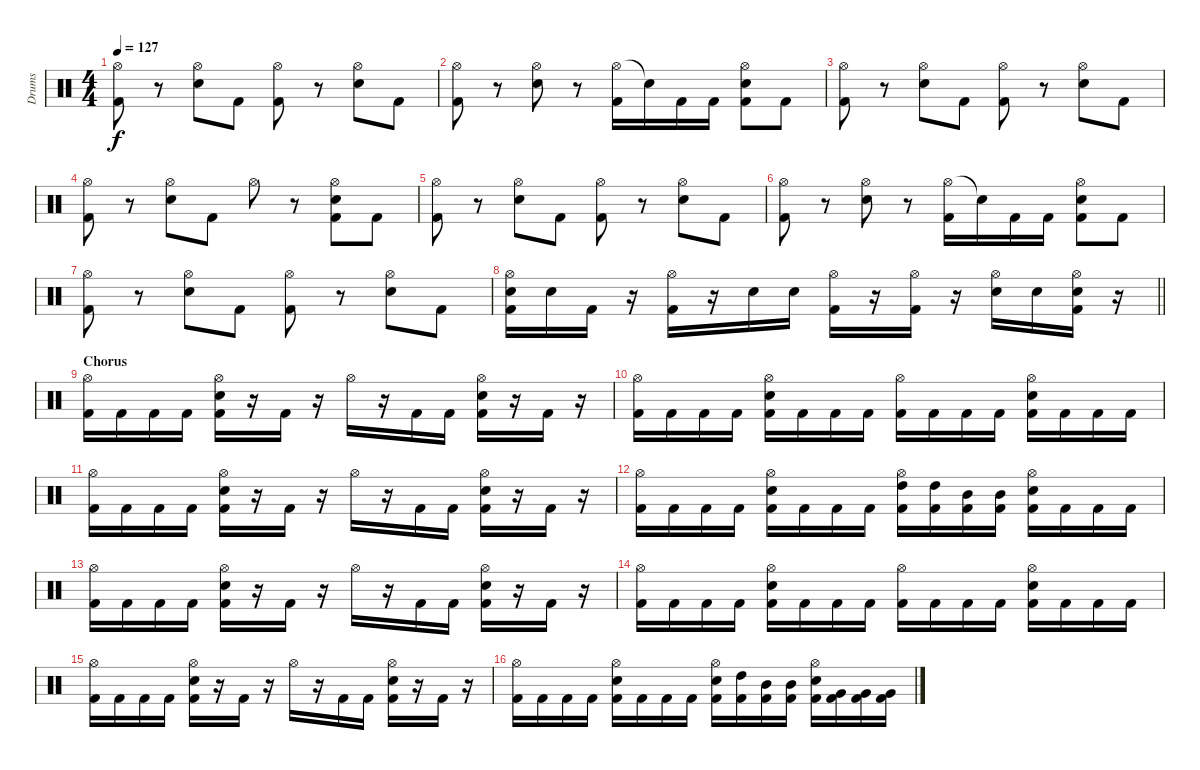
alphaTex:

\track ("Drums" "Drums") {instrument percussion}
\staff {score}
\articulation defaults
\ts (4 4)
\tempo 127
\clef neutral
\ks c
("Hi-Hat (open)" "Kick (hit) 2").8{dy f} r.8 ("Hi-Hat (open)" "Electric Snare (hit)").8 "Kick (hit) 2".8 ("Hi-Hat (open)" "Kick (hit) 2").8 r.8 ("Hi-Hat (open)" "Electric Snare (hit)").8 "Kick (hit) 2".8 |
("Hi-Hat (open)" "Kick (hit) 2").8 r.8 ("Hi-Hat (open)" "Electric Snare (hit)").8 r.8 ("Hi-Hat (open)" "Kick (hit) 2").16 "Snare (hit)"{t}.16 "Kick (hit) 2".16 "Kick (hit) 2".16 ("Hi-Hat (open)" "Electric Snare (hit)" "Kick (hit) 2").8 "Kick (hit) 2".8 |
("Hi-Hat (open)" "Kick (hit) 2").8 r.8 ("Hi-Hat (open)" "Electric Snare (hit)").8 "Kick (hit) 2".8 ("Hi-Hat (open)" "Kick (hit) 2").8 r.8 ("Hi-Hat (open)" "Electric Snare (hit)").8 "Kick (hit) 2".8 |
("Hi-Hat (open)" "Kick (hit) 2").8 r.8 ("Hi-Hat (open)" "Electric Snare (hit)").8 "Kick (hit) 2".8 "Hi-Hat (open)".8 r.8 ("Hi-Hat (open)" "Electric Snare (hit)" "Kick (hit) 2").8 "Kick (hit) 2".8 |
("Hi-Hat (open)" "Kick (hit) 2").8 r.8 ("Hi-Hat (open)" "Electric Snare (hit)").8 "Kick (hit) 2".8 ("Hi-Hat (open)" "Kick (hit) 2").8 r.8 ("Hi-Hat (open)" "Electric Snare (hit)").8 "Kick (hit) 2".8 |
("Hi-Hat (open)" "Kick (hit) 2").8 r.8 ("Hi-Hat (open)" "Electric Snare (hit)").8 r.8 ("Hi-Hat (open)" "Kick (hit) 2").16 "Snare (hit)"{t}.16 "Kick (hit) 2".16 "Kick (hit) 2".16 ("Hi-Hat (open)" "Electric Snare (hit)" "Kick (hit) 2").8 "Kick (hit) 2".8 |
("Hi-Hat (open)" "Kick (hit) 2").8 r.8 ("Hi-Hat (open)" "Electric Snare (hit)").8 "Kick (hit) 2".8 ("Hi-Hat (open)" "Kick (hit) 2").8 r.8 ("Hi-Hat (open)" "Electric Snare (hit)").8 "Kick (hit) 2".8 |
\barLineRight lightlight
("Hi-Hat (open)" "Electric Snare (hit)" "Kick (hit) 2").16 "Electric Snare (hit)".16 "Kick (hit) 2".16 r.16 ("Hi-Hat (open)" "Kick (hit) 2").16 r.16 "Electric Snare (hit)".16 "Electric Snare (hit)".16 ("Hi-Hat (open)" "Kick (hit) 2").16 r.16 ("Hi-Hat (open)" "Kick (hit) 2").16 r.16 ("Hi-Hat (open)" "Electric Snare (hit)").16 "Electric Snare (hit)".16 ("Hi-Hat (open)" "Electric Snare (hit)" "Kick (hit) 2").16 r.16 |
\section ("" "Chorus")
("Hi-Hat (open)" "Kick (hit) 2").16 "Kick (hit) 2".16 "Kick (hit) 2".16 "Kick (hit) 2".16 ("Hi-Hat (open)" "Electric Snare (hit)" "Kick (hit) 2").16 r.16 "Kick (hit) 2".16 r.16 "Hi-Hat (open)".16 r.16 "Kick (hit) 2".16 "Kick (hit) 2".16 ("Hi-Hat (open)" "Electric Snare (hit)" "Kick (hit) 2").16 r.16 "Kick (hit) 2".16 r.16 |
("Hi-Hat (open)" "Kick (hit) 2").16 "Kick (hit) 2".16 "Kick (hit) 2".16 "Kick (hit) 2".16 ("Hi-Hat (open)" "Electric Snare (hit)" "Kick (hit) 2").16 "Kick (hit) 2".16 "Kick (hit) 2".16 "Kick (hit) 2".16 ("Hi-Hat (open)" "Kick (hit) 2").16 "Kick (hit) 2".16 "Kick (hit) 2".16 "Kick (hit) 2".16 ("Hi-Hat (open)" "Electric Snare (hit)" "Kick (hit) 2").16 "Kick (hit) 2".16 "Kick (hit) 2".16 "Kick (hit) 2".16 |
("Hi-Hat (open)" "Kick (hit) 2").16 "Kick (hit) 2".16 "Kick (hit) 2".16 "Kick (hit) 2".16 ("Hi-Hat (open)" "Electric Snare (hit)" "Kick (hit) 2").16 r.16 "Kick (hit) 2".16 r.16 "Hi-Hat (open)".16 r.16 "Kick (hit) 2".16 "Kick (hit) 2".16 ("Hi-Hat (open)" "Electric Snare (hit)" "Kick (hit) 2").16 r.16 "Kick (hit) 2".16 r.16 |
("Hi-Hat (open)" "Kick (hit) 2").16 "Kick (hit) 2".16 "Kick (hit) 2".16 "Kick (hit) 2".16 ("Hi-Hat (open)" "Electric Snare (hit)" "Kick (hit) 2").16 "Kick (hit) 2".16 "Kick (hit) 2".16 "Kick (hit) 2".16 ("Hi-Hat (open)" "High Tom (hit)" "Kick (hit) 2").16 ("High Tom (hit)" "Kick (hit) 2").16 ("Mid Tom (hit)" "Kick (hit) 2").16 ("Mid Tom (hit)" "Kick (hit) 2").16 ("Hi-Hat (open)" "Electric Snare (hit)" "Kick (hit) 2").16 "Kick (hit) 2".16 "Kick (hit) 2".16 "Kick (hit) 2".16 |
("Hi-Hat (open)" "Kick (hit) 2").16 "Kick (hit) 2".16 "Kick (hit) 2".16 "Kick (hit) 2".16 ("Hi-Hat (open)" "Electric Snare (hit)" "Kick (hit) 2").16 r.16 "Kick (hit) 2".16 r.16 "Hi-Hat (open)".16 r.16 "Kick (hit) 2".16 "Kick (hit) 2".16 ("Hi-Hat (open)" "Electric Snare (hit)" "Kick (hit) 2").16 r.16 "Kick (hit) 2".16 r.16 |
("Hi-Hat (open)" "Kick (hit) 2").16 "Kick (hit) 2".16 "Kick (hit) 2".16 "Kick (hit) 2".16 ("Hi-Hat (open)" "Electric Snare (hit)" "Kick (hit) 2").16 "Kick (hit) 2".16 "Kick (hit) 2".16 "Kick (hit) 2".16 ("Hi-Hat (open)" "Kick (hit) 2").16 "Kick (hit) 2".16 "Kick (hit) 2".16 "Kick (hit) 2".16 ("Hi-Hat (open)" "Electric Snare (hit)" "Kick (hit) 2").16 "Kick (hit) 2".16 "Kick (hit) 2".16 "Kick (hit) 2".16 |
("Hi-Hat (open)" "Kick (hit) 2").16 "Kick (hit) 2".16 "Kick (hit) 2".16 "Kick (hit) 2".16 ("Hi-Hat (open)" "Electric Snare (hit)" "Kick (hit) 2").16 r.16 "Kick (hit) 2".16 r.16 "Hi-Hat (open)".16 r.16 "Kick (hit) 2".16 "Kick (hit) 2".16 ("Hi-Hat (open)" "Electric Snare (hit)" "Kick (hit) 2").16 r.16 "Kick (hit) 2".16 r.16 |
("Hi-Hat (open)" "Kick (hit) 2").16 "Kick (hit) 2".16 "Kick (hit) 2".16 "Kick (hit) 2".16 ("Hi-Hat (open)" "Electric Snare (hit)" "Kick (hit) 2").16 "Kick (hit) 2".16 "Kick (hit) 2".16 "Kick (hit) 2".16 ("Hi-Hat (open)" "Electric Snare (hit)" "Kick (hit) 2").16 ("High Tom (hit)" "Kick (hit) 2").16 ("Mid Tom (hit)" "Kick (hit) 2").16 ("Mid Tom (hit)" "Kick (hit) 2").16 ("Hi-Hat (open)" "Electric Snare (hit)" "Kick (hit) 2").16 ("Very Low Tom (hit)" "Kick (hit) 2").16 ("Very Low Tom (hit)" "Kick (hit) 2").16 ("Very Low Tom (hit)" "Kick (hit) 2").16
